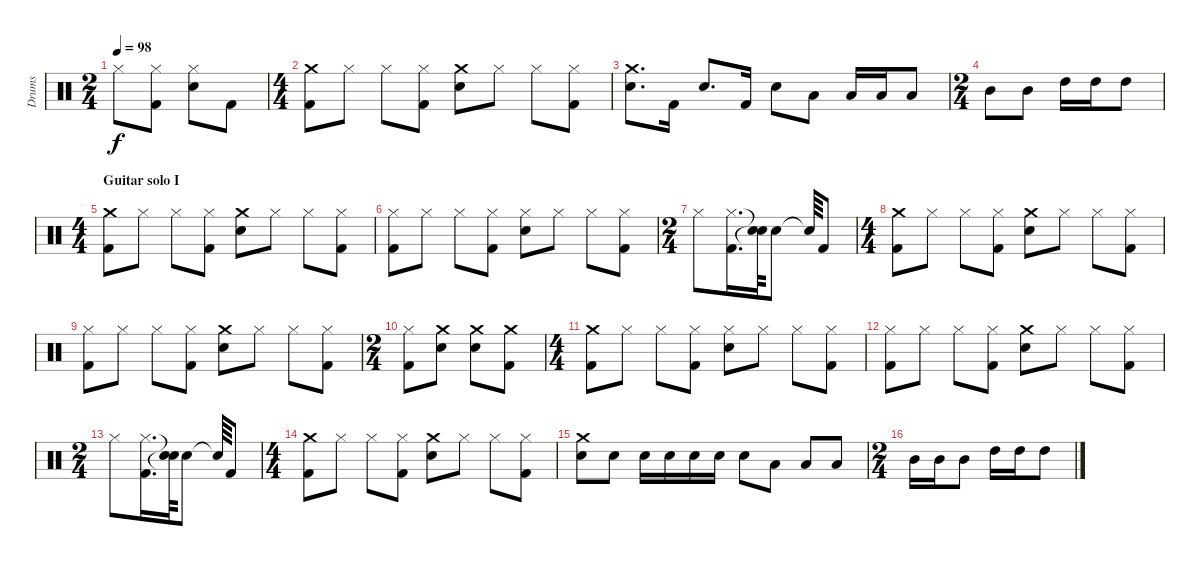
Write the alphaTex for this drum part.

\track ("Drums" "Drums") {instrument percussion}
\staff {score}
\articulation defaults
\ts (2 4)
\tempo 98
\clef neutral
\ks c "Hi-Hat (closed)".8{dy f}
("Kick (hit) 2" "Hi-Hat (closed)").8 ("Hi-Hat (closed)" "Snare (hit) 2").8 "Kick (hit) 2".8 |
\ts (4 4)
("Crash medium (hit)" "Kick (hit) 2").8 "Hi-Hat (closed)".8 "Hi-Hat (closed)".8 ("Hi-Hat (closed)" "Kick (hit) 2").8 ("Crash medium (hit)" "Snare (hit) 2").8 "Hi-Hat (closed)".8 "Hi-Hat (closed)".8 ("Hi-Hat (closed)" "Kick (hit) 2").8 |
("Snare (hit) 2" "Crash medium (hit)").8{d} "Kick (hit) 2".16 "Snare (hit) 2".8{d} "Kick (hit) 2".16 "Snare (hit) 2".8 "Low Tom (hit)".8 "Low Tom (hit)".16 "Low Tom (hit)".16 "Low Tom (hit)".8 |
\ts (2 4)
"Mid Tom (hit)".8 "Mid Tom (hit)".8 "High Tom (hit)".16 "High Tom (hit)".16 "High Tom (hit)".8 |
\ts (4 4)
\section ("" "Guitar solo I")
("Crash medium (hit)" "Kick (hit) 2").8 "Hi-Hat (closed)".8 "Hi-Hat (closed)".8 ("Hi-Hat (closed)" "Kick (hit) 2").8 ("Crash medium (hit)" "Snare (hit) 2").8 "Hi-Hat (closed)".8 "Hi-Hat (closed)".8 ("Hi-Hat (closed)" "Kick (hit) 2").8 |
("Hi-Hat (closed)" "Kick (hit) 2").8 "Hi-Hat (closed)".8 "Hi-Hat (closed)".8 ("Hi-Hat (closed)" "Kick (hit) 2").8 ("Hi-Hat (closed)" "Snare (hit) 2").8 "Hi-Hat (closed)".8 "Hi-Hat (closed)".8 ("Hi-Hat (closed)" "Kick (hit) 2").8 |
\ts (2 4)
"Hi-Hat (closed)".8 ("Kick (hit) 2" "Hi-Hat (closed)").16{d} ("Snare (hit)"{t} "Snare (hit)"{t}).64 "Snare (hit) 2".8 "Snare (hit)"{t}.64 "Kick (hit) 2".8 |
\ts (4 4)
("Crash medium (hit)" "Kick (hit) 2").8 "Hi-Hat (closed)".8 "Hi-Hat (closed)".8 ("Hi-Hat (closed)" "Kick (hit) 2").8 ("Crash medium (hit)" "Snare (hit) 2").8 "Hi-Hat (closed)".8 "Hi-Hat (closed)".8 ("Hi-Hat (closed)" "Kick (hit) 2").8 |
("Hi-Hat (closed)" "Kick (hit) 2").8 "Hi-Hat (closed)".8 "Hi-Hat (closed)".8 ("Hi-Hat (closed)" "Kick (hit) 2").8 ("Crash medium (hit)" "Snare (hit) 2").8 "Hi-Hat (closed)".8 "Hi-Hat (closed)".8 ("Hi-Hat (closed)" "Kick (hit) 2").8 |
\ts (2 4)
("Hi-Hat (closed)" "Kick (hit) 2").8 ("Crash medium (hit)" "Snare (hit) 2").8 ("Crash medium (hit)" "Snare (hit) 2").8 ("Crash medium (hit)" "Kick (hit) 2").8 |
\ts (4 4)
("Kick (hit) 2" "Crash medium (hit)").8 "Hi-Hat (closed)".8 "Hi-Hat (closed)".8 ("Kick (hit) 2" "Hi-Hat (closed)").8 ("Snare (hit) 2" "Hi-Hat (closed)").8 "Hi-Hat (closed)".8 "Hi-Hat (closed)".8 ("Kick (hit) 2" "Hi-Hat (closed)").8 |
("Hi-Hat (closed)" "Kick (hit) 2").8 "Hi-Hat (closed)".8 "Hi-Hat (closed)".8 ("Kick (hit) 2" "Hi-Hat (closed)").8 ("Crash medium (hit)" "Snare (hit) 2").8 "Hi-Hat (closed)".8 "Hi-Hat (closed)".8 ("Kick (hit) 2" "Hi-Hat (closed)").8 |
\ts (2 4)
"Hi-Hat (closed)".8 ("Kick (hit) 2" "Hi-Hat (closed)").16{d} ("Snare (hit)"{t} "Snare (hit)"{t}).64 "Snare (hit) 2".8 "Snare (hit)"{t}.64 "Kick (hit) 2".8 |
\ts (4 4)
("Crash medium (hit)" "Kick (hit) 2").8 "Hi-Hat (closed)".8 "Hi-Hat (closed)".8 ("Hi-Hat (closed)" "Kick (hit) 2").8 ("Crash medium (hit)" "Snare (hit) 2").8 "Hi-Hat (closed)".8 "Hi-Hat (closed)".8 ("Hi-Hat (closed)" "Kick (hit) 2").8 |
("Snare (hit) 2" "Crash medium (hit)").8 "Snare (hit) 2".8 "Snare (hit) 2".16 "Snare (hit) 2".16 "Snare (hit) 2".16 "Snare (hit) 2".16 "Snare (hit) 2".8 "Low Tom (hit)".8 "Low Tom (hit)".8 "Low Tom (hit)".8 |
\ts (2 4)
"Mid Tom (hit)".16 "Mid Tom (hit)".16 "Mid Tom (hit)".8 "High Tom (hit)".16 "High Tom (hit)".16 "High Tom (hit)".8
